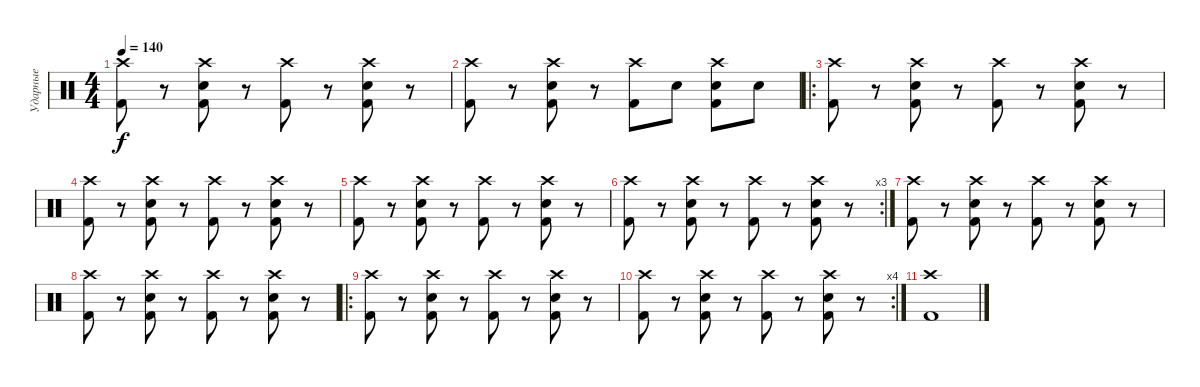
\track ("Ударные" "Ударные") {instrument percussion}
\staff {score}
\articulation defaults
\ts (4 4)
\tempo 140
\clef neutral
\ks c
("Crash high (hit)" "Kick (hit) 2").8{dy f} r.8 ("Crash high (hit)" "Electric Snare (hit)" "Kick (hit) 2").8 r.8 ("Crash high (hit)" "Kick (hit) 2").8 r.8 ("Crash high (hit)" "Electric Snare (hit)" "Kick (hit) 2").8 r.8 |
("Crash high (hit)" "Kick (hit) 2").8 r.8 ("Crash high (hit)" "Electric Snare (hit)" "Kick (hit) 2").8 r.8 ("Crash high (hit)" "Kick (hit) 2").8 "Electric Snare (hit)".8 ("Crash high (hit)" "Electric Snare (hit)" "Kick (hit) 2").8 "Electric Snare (hit)".8 |
\ro
("Crash high (hit)" "Kick (hit) 2").8 r.8 ("Crash high (hit)" "Electric Snare (hit)" "Kick (hit) 2").8 r.8 ("Crash high (hit)" "Kick (hit) 2").8 r.8 ("Crash high (hit)" "Electric Snare (hit)" "Kick (hit) 2").8 r.8 |
("Crash high (hit)" "Kick (hit) 2").8 r.8 ("Crash high (hit)" "Electric Snare (hit)" "Kick (hit) 2").8 r.8 ("Crash high (hit)" "Kick (hit) 2").8 r.8 ("Crash high (hit)" "Electric Snare (hit)" "Kick (hit) 2").8 r.8 |
("Crash high (hit)" "Kick (hit) 2").8 r.8 ("Crash high (hit)" "Electric Snare (hit)" "Kick (hit) 2").8 r.8 ("Crash high (hit)" "Kick (hit) 2").8 r.8 ("Crash high (hit)" "Electric Snare (hit)" "Kick (hit) 2").8 r.8 |
\rc 3
("Crash high (hit)" "Kick (hit) 2").8 r.8 ("Crash high (hit)" "Electric Snare (hit)" "Kick (hit) 2").8 r.8 ("Crash high (hit)" "Kick (hit) 2").8 r.8 ("Crash high (hit)" "Electric Snare (hit)" "Kick (hit) 2").8 r.8 |
("Crash high (hit)" "Kick (hit) 2").8 r.8 ("Crash high (hit)" "Electric Snare (hit)" "Kick (hit) 2").8 r.8 ("Crash high (hit)" "Kick (hit) 2").8 r.8 ("Crash high (hit)" "Electric Snare (hit)" "Kick (hit) 2").8 r.8 |
("Crash high (hit)" "Kick (hit) 2").8 r.8 ("Crash high (hit)" "Electric Snare (hit)" "Kick (hit) 2").8 r.8 ("Crash high (hit)" "Kick (hit) 2").8 r.8 ("Crash high (hit)" "Electric Snare (hit)" "Kick (hit) 2").8 r.8 |
\ro
("Crash high (hit)" "Kick (hit) 2").8 r.8 ("Crash high (hit)" "Electric Snare (hit)" "Kick (hit) 2").8 r.8 ("Crash high (hit)" "Kick (hit) 2").8 r.8 ("Crash high (hit)" "Electric Snare (hit)" "Kick (hit) 2").8 r.8 |
\rc 4
("Crash high (hit)" "Kick (hit) 2").8 r.8 ("Crash high (hit)" "Electric Snare (hit)" "Kick (hit) 2").8 r.8 ("Crash high (hit)" "Kick (hit) 2").8 r.8 ("Crash high (hit)" "Electric Snare (hit)" "Kick (hit) 2").8 r.8 |
("Crash high (hit)" "Kick (hit) 2").1
